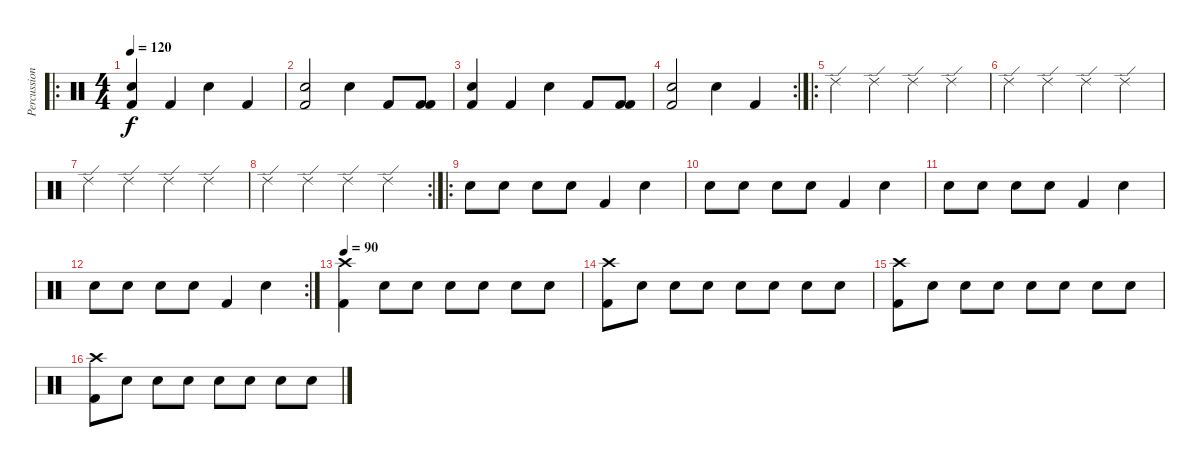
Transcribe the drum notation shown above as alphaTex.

\track ("Percussions" "Percussion") {instrument percussion}
\staff {score}
\articulation defaults
\ro
\ts (4 4)
\tempo 120
\clef neutral
\ks c
("Electric Snare (hit)" "Kick (hit) 2").4{dy f} "Kick (hit) 2".4 "Electric Snare (hit)".4 "Kick (hit) 2".4 |
("Electric Snare (hit)" "Kick (hit) 2").2 "Electric Snare (hit)".4 "Kick (hit) 2".8 ("Kick (hit) 2" "Kick (hit) 2").8 |
("Electric Snare (hit)" "Kick (hit) 2").4 "Kick (hit) 2".4 "Electric Snare (hit)".4 "Kick (hit) 2".8 ("Kick (hit) 2" "Kick (hit) 2").8 |
\rc 2
("Electric Snare (hit)" "Kick (hit) 2").2 "Electric Snare (hit)".4 "Kick (hit) 2".4 |
\ro "Ride (edge) 2".4 "Ride (edge) 2".4 "Ride (edge) 2".4 "Ride (edge) 2".4
|
"Ride (edge) 2".4 "Ride (edge) 2".4 "Ride (edge) 2".4 "Ride (edge) 2".4 |
"Ride (edge) 2".4 "Ride (edge) 2".4 "Ride (edge) 2".4 "Ride (edge) 2".4 |
\rc 2 "Ride (edge) 2".4 "Ride (edge) 2".4 "Ride (edge) 2".4 "Ride (edge) 2".4
|
\ro "Electric Snare (hit)".8 "Electric Snare (hit)".8 "Electric Snare (hit)".8 "Electric Snare (hit)".8 "Kick (hit) 2".4 "Electric Snare (hit)".4
|
"Electric Snare (hit)".8 "Electric Snare (hit)".8 "Electric Snare (hit)".8 "Electric Snare (hit)".8 "Kick (hit) 2".4 "Electric Snare (hit)".4 |
"Electric Snare (hit)".8 "Electric Snare (hit)".8 "Electric Snare (hit)".8 "Electric Snare (hit)".8 "Kick (hit) 2".4 "Electric Snare (hit)".4 |
\rc 2 "Electric Snare (hit)".8 "Electric Snare (hit)".8 "Electric Snare (hit)".8 "Electric Snare (hit)".8 "Kick (hit) 2".4 "Electric Snare (hit)".4
|
\tempo 90
("Crash high (hit)" "Kick (hit) 2").4 "Electric Snare (hit)".8 "Electric Snare (hit)".8 "Electric Snare (hit)".8 "Electric Snare (hit)".8 "Electric Snare (hit)".8 "Electric Snare (hit)".8 |
("Crash high (hit)" "Kick (hit) 2").8 "Electric Snare (hit)".8 "Electric Snare (hit)".8 "Electric Snare (hit)".8 "Electric Snare (hit)".8 "Electric Snare (hit)".8 "Electric Snare (hit)".8 "Electric Snare (hit)".8 |
("Crash high (hit)" "Kick (hit) 2").8 "Electric Snare (hit)".8 "Electric Snare (hit)".8 "Electric Snare (hit)".8 "Electric Snare (hit)".8 "Electric Snare (hit)".8 "Electric Snare (hit)".8 "Electric Snare (hit)".8 |
("Crash high (hit)" "Kick (hit) 2").8 "Electric Snare (hit)".8 "Electric Snare (hit)".8 "Electric Snare (hit)".8 "Electric Snare (hit)".8 "Electric Snare (hit)".8 "Electric Snare (hit)".8 "Electric Snare (hit)".8
